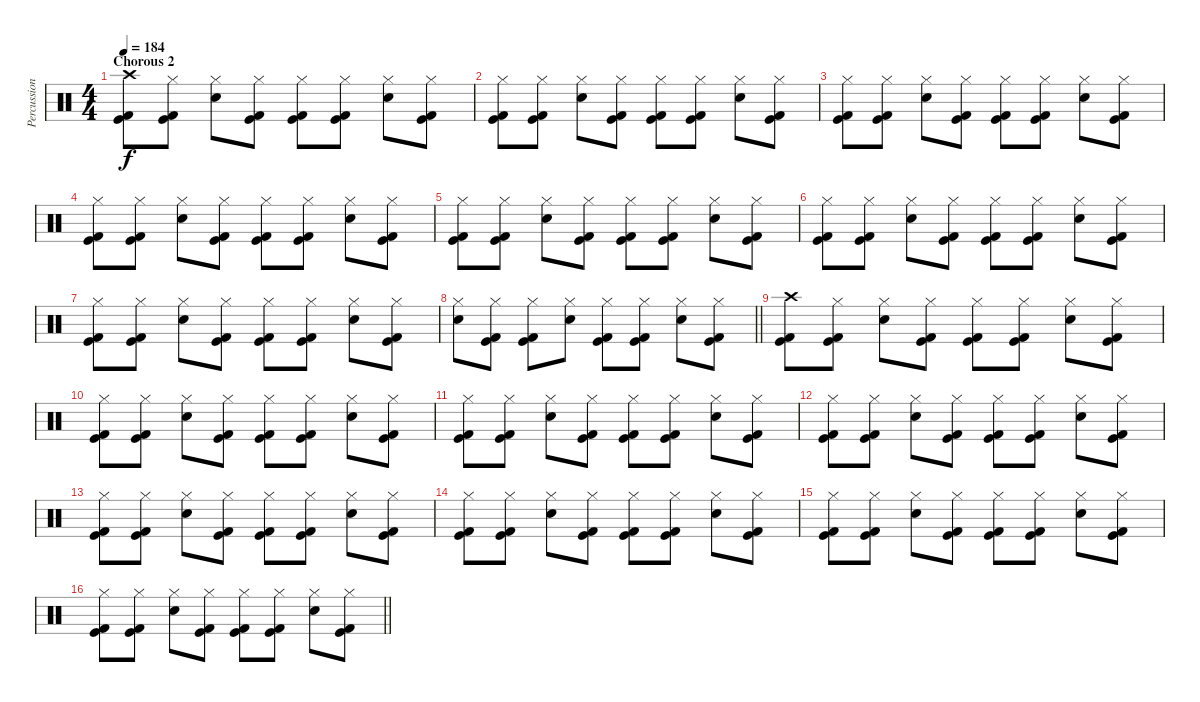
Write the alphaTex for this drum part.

\track ("Percussion" "Percussion") {instrument percussion}
\staff {score}
\articulation defaults
\ts (4 4)
\section ("" "Chorous 2")
\tempo 184
\clef neutral
\ks c
("Crash high (hit)" "Kick (hit)" "Kick (hit) 2").8{dy f} ("Hi-Hat (closed)" "Kick (hit)" "Kick (hit) 2").8 ("Hi-Hat (closed)" "Electric Snare (hit)").8 ("Hi-Hat (closed)" "Kick (hit)" "Kick (hit) 2").8 ("Hi-Hat (closed)" "Kick (hit)" "Kick (hit) 2").8 ("Hi-Hat (closed)" "Kick (hit)" "Kick (hit) 2").8 ("Hi-Hat (closed)" "Electric Snare (hit)").8 ("Hi-Hat (closed)" "Kick (hit)" "Kick (hit) 2").8 |
("Hi-Hat (closed)" "Kick (hit)" "Kick (hit) 2").8 ("Hi-Hat (closed)" "Kick (hit)" "Kick (hit) 2").8 ("Hi-Hat (closed)" "Electric Snare (hit)").8 ("Hi-Hat (closed)" "Kick (hit)" "Kick (hit) 2").8 ("Hi-Hat (closed)" "Kick (hit)" "Kick (hit) 2").8 ("Hi-Hat (closed)" "Kick (hit)" "Kick (hit) 2").8 ("Hi-Hat (closed)" "Electric Snare (hit)").8 ("Hi-Hat (closed)" "Kick (hit)" "Kick (hit) 2").8 |
("Hi-Hat (closed)" "Kick (hit)" "Kick (hit) 2").8 ("Hi-Hat (closed)" "Kick (hit)" "Kick (hit) 2").8 ("Hi-Hat (closed)" "Electric Snare (hit)").8 ("Hi-Hat (closed)" "Kick (hit)" "Kick (hit) 2").8 ("Hi-Hat (closed)" "Kick (hit)" "Kick (hit) 2").8 ("Hi-Hat (closed)" "Kick (hit)" "Kick (hit) 2").8 ("Hi-Hat (closed)" "Electric Snare (hit)").8 ("Hi-Hat (closed)" "Kick (hit)" "Kick (hit) 2").8 |
("Hi-Hat (closed)" "Kick (hit)" "Kick (hit) 2").8 ("Hi-Hat (closed)" "Kick (hit)" "Kick (hit) 2").8 ("Hi-Hat (closed)" "Electric Snare (hit)").8 ("Hi-Hat (closed)" "Kick (hit)" "Kick (hit) 2").8 ("Hi-Hat (closed)" "Kick (hit)" "Kick (hit) 2").8 ("Hi-Hat (closed)" "Kick (hit)" "Kick (hit) 2").8 ("Hi-Hat (closed)" "Electric Snare (hit)").8 ("Hi-Hat (closed)" "Kick (hit)" "Kick (hit) 2").8 |
("Hi-Hat (closed)" "Kick (hit)" "Kick (hit) 2").8 ("Hi-Hat (closed)" "Kick (hit)" "Kick (hit) 2").8 ("Hi-Hat (closed)" "Electric Snare (hit)").8 ("Hi-Hat (closed)" "Kick (hit)" "Kick (hit) 2").8 ("Hi-Hat (closed)" "Kick (hit)" "Kick (hit) 2").8 ("Hi-Hat (closed)" "Kick (hit)" "Kick (hit) 2").8 ("Hi-Hat (closed)" "Electric Snare (hit)").8 ("Hi-Hat (closed)" "Kick (hit)" "Kick (hit) 2").8 |
("Hi-Hat (closed)" "Kick (hit)" "Kick (hit) 2").8 ("Hi-Hat (closed)" "Kick (hit)" "Kick (hit) 2").8 ("Hi-Hat (closed)" "Electric Snare (hit)").8 ("Hi-Hat (closed)" "Kick (hit)" "Kick (hit) 2").8 ("Hi-Hat (closed)" "Kick (hit)" "Kick (hit) 2").8 ("Hi-Hat (closed)" "Kick (hit)" "Kick (hit) 2").8 ("Hi-Hat (closed)" "Electric Snare (hit)").8 ("Hi-Hat (closed)" "Kick (hit)" "Kick (hit) 2").8 |
("Hi-Hat (closed)" "Kick (hit)" "Kick (hit) 2").8 ("Hi-Hat (closed)" "Kick (hit)" "Kick (hit) 2").8 ("Hi-Hat (closed)" "Electric Snare (hit)").8 ("Hi-Hat (closed)" "Kick (hit)" "Kick (hit) 2").8 ("Hi-Hat (closed)" "Kick (hit)" "Kick (hit) 2").8 ("Hi-Hat (closed)" "Kick (hit)" "Kick (hit) 2").8 ("Hi-Hat (closed)" "Electric Snare (hit)").8 ("Hi-Hat (closed)" "Kick (hit)" "Kick (hit) 2").8 |
\barLineRight lightlight
("Hi-Hat (closed)" "Electric Snare (hit)").8 ("Hi-Hat (closed)" "Kick (hit)" "Kick (hit) 2").8 ("Hi-Hat (closed)" "Kick (hit)" "Kick (hit) 2").8 ("Hi-Hat (closed)" "Electric Snare (hit)").8 ("Hi-Hat (closed)" "Kick (hit)" "Kick (hit) 2").8 ("Hi-Hat (closed)" "Kick (hit)" "Kick (hit) 2").8 ("Hi-Hat (closed)" "Electric Snare (hit)").8 ("Hi-Hat (closed)" "Kick (hit)" "Kick (hit) 2").8 |
\section ("" "")
("Crash high (hit)" "Kick (hit)" "Kick (hit) 2").8 ("Hi-Hat (closed)" "Kick (hit)" "Kick (hit) 2").8 ("Hi-Hat (closed)" "Electric Snare (hit)").8 ("Hi-Hat (closed)" "Kick (hit)" "Kick (hit) 2").8 ("Hi-Hat (closed)" "Kick (hit)" "Kick (hit) 2").8 ("Hi-Hat (closed)" "Kick (hit)" "Kick (hit) 2").8 ("Hi-Hat (closed)" "Electric Snare (hit)").8 ("Hi-Hat (closed)" "Kick (hit)" "Kick (hit) 2").8 |
("Hi-Hat (closed)" "Kick (hit)" "Kick (hit) 2").8 ("Hi-Hat (closed)" "Kick (hit)" "Kick (hit) 2").8 ("Hi-Hat (closed)" "Electric Snare (hit)").8 ("Hi-Hat (closed)" "Kick (hit)" "Kick (hit) 2").8 ("Hi-Hat (closed)" "Kick (hit)" "Kick (hit) 2").8 ("Hi-Hat (closed)" "Kick (hit)" "Kick (hit) 2").8 ("Hi-Hat (closed)" "Electric Snare (hit)").8 ("Hi-Hat (closed)" "Kick (hit)" "Kick (hit) 2").8 |
("Hi-Hat (closed)" "Kick (hit)" "Kick (hit) 2").8 ("Hi-Hat (closed)" "Kick (hit)" "Kick (hit) 2").8 ("Hi-Hat (closed)" "Electric Snare (hit)").8 ("Hi-Hat (closed)" "Kick (hit)" "Kick (hit) 2").8 ("Hi-Hat (closed)" "Kick (hit)" "Kick (hit) 2").8 ("Hi-Hat (closed)" "Kick (hit)" "Kick (hit) 2").8 ("Hi-Hat (closed)" "Electric Snare (hit)").8 ("Hi-Hat (closed)" "Kick (hit)" "Kick (hit) 2").8 |
("Hi-Hat (closed)" "Kick (hit)" "Kick (hit) 2").8 ("Hi-Hat (closed)" "Kick (hit)" "Kick (hit) 2").8 ("Hi-Hat (closed)" "Electric Snare (hit)").8 ("Hi-Hat (closed)" "Kick (hit)" "Kick (hit) 2").8 ("Hi-Hat (closed)" "Kick (hit)" "Kick (hit) 2").8 ("Hi-Hat (closed)" "Kick (hit)" "Kick (hit) 2").8 ("Hi-Hat (closed)" "Electric Snare (hit)").8 ("Hi-Hat (closed)" "Kick (hit)" "Kick (hit) 2").8 |
("Hi-Hat (closed)" "Kick (hit)" "Kick (hit) 2").8 ("Hi-Hat (closed)" "Kick (hit)" "Kick (hit) 2").8 ("Hi-Hat (closed)" "Electric Snare (hit)").8 ("Hi-Hat (closed)" "Kick (hit)" "Kick (hit) 2").8 ("Hi-Hat (closed)" "Kick (hit)" "Kick (hit) 2").8 ("Hi-Hat (closed)" "Kick (hit)" "Kick (hit) 2").8 ("Hi-Hat (closed)" "Electric Snare (hit)").8 ("Hi-Hat (closed)" "Kick (hit)" "Kick (hit) 2").8 |
("Hi-Hat (closed)" "Kick (hit)" "Kick (hit) 2").8 ("Hi-Hat (closed)" "Kick (hit)" "Kick (hit) 2").8 ("Hi-Hat (closed)" "Electric Snare (hit)").8 ("Hi-Hat (closed)" "Kick (hit)" "Kick (hit) 2").8 ("Hi-Hat (closed)" "Kick (hit)" "Kick (hit) 2").8 ("Hi-Hat (closed)" "Kick (hit)" "Kick (hit) 2").8 ("Hi-Hat (closed)" "Electric Snare (hit)").8 ("Hi-Hat (closed)" "Kick (hit)" "Kick (hit) 2").8 |
("Hi-Hat (closed)" "Kick (hit)" "Kick (hit) 2").8 ("Hi-Hat (closed)" "Kick (hit)" "Kick (hit) 2").8 ("Hi-Hat (closed)" "Electric Snare (hit)").8 ("Hi-Hat (closed)" "Kick (hit)" "Kick (hit) 2").8 ("Hi-Hat (closed)" "Kick (hit)" "Kick (hit) 2").8 ("Hi-Hat (closed)" "Kick (hit)" "Kick (hit) 2").8 ("Hi-Hat (closed)" "Electric Snare (hit)").8 ("Hi-Hat (closed)" "Kick (hit)" "Kick (hit) 2").8 |
\barLineRight lightlight
("Hi-Hat (closed)" "Kick (hit)" "Kick (hit) 2").8 ("Hi-Hat (closed)" "Kick (hit)" "Kick (hit) 2").8 ("Hi-Hat (closed)" "Electric Snare (hit)").8 ("Hi-Hat (closed)" "Kick (hit)" "Kick (hit) 2").8 ("Hi-Hat (closed)" "Kick (hit)" "Kick (hit) 2").8 ("Hi-Hat (closed)" "Kick (hit)" "Kick (hit) 2").8 ("Hi-Hat (closed)" "Electric Snare (hit)").8 ("Hi-Hat (closed)" "Kick (hit)" "Kick (hit) 2").8
